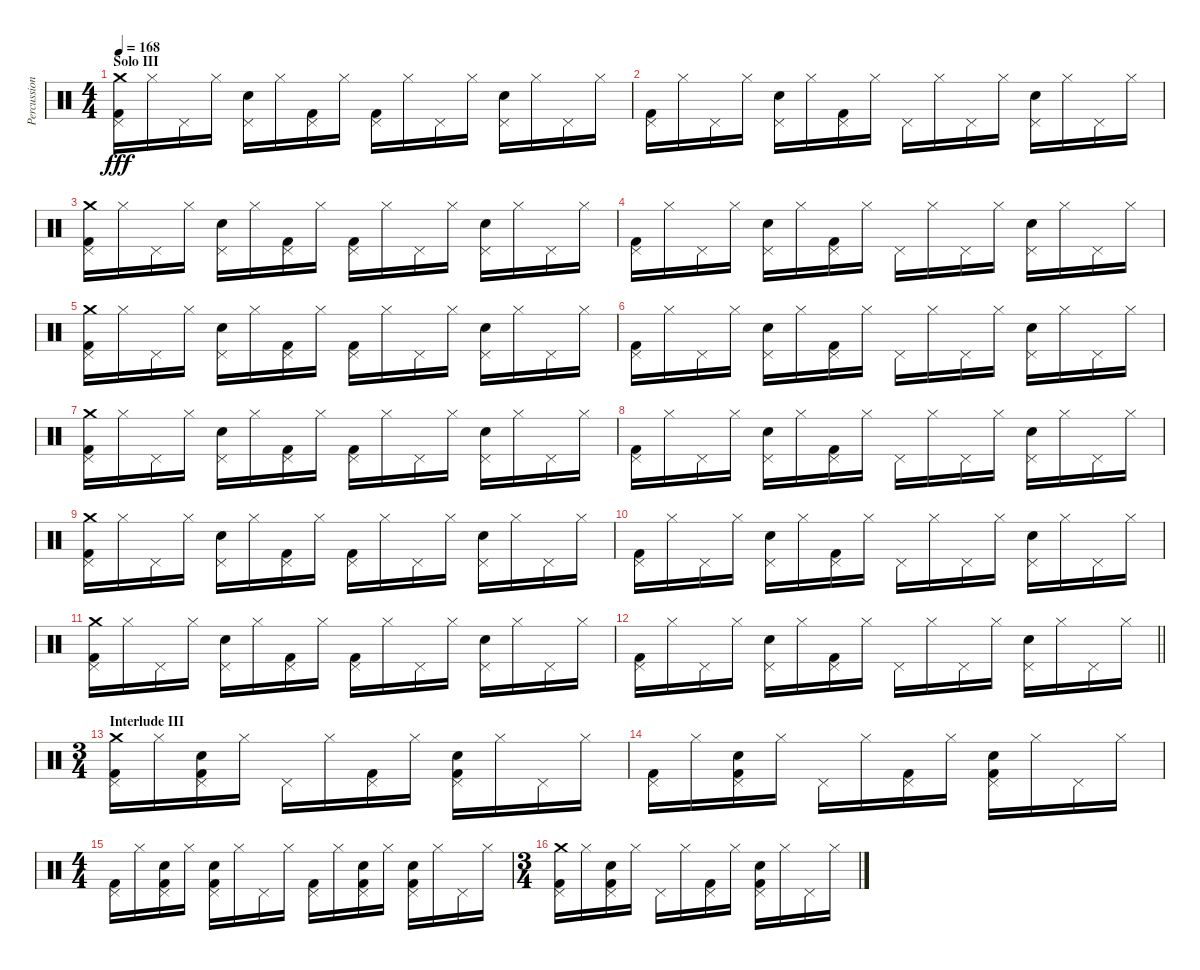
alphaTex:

\track ("Percussion" "Percussion") {instrument percussion}
\staff {score}
\articulation defaults
\ts (4 4)
\section ("" "Solo III")
\tempo 168
\clef neutral
\ks c
("Kick (hit) 2" "Crash medium (hit)" "Pedal Hi-Hat (hit)").16{dy fff} "Hi-Hat (closed)".16 "Pedal Hi-Hat (hit)".16 "Hi-Hat (closed)".16 ("Pedal Hi-Hat (hit)" "Snare (hit) 2").16 "Hi-Hat (closed)".16 ("Kick (hit) 2" "Pedal Hi-Hat (hit)").16 "Hi-Hat (closed)".16 ("Kick (hit) 2" "Pedal Hi-Hat (hit)").16 "Hi-Hat (closed)".16 "Pedal Hi-Hat (hit)".16 "Hi-Hat (closed)".16 ("Pedal Hi-Hat (hit)" "Snare (hit) 2").16 "Hi-Hat (closed)".16 "Pedal Hi-Hat (hit)".16 "Hi-Hat (closed)".16 |
("Kick (hit) 2" "Pedal Hi-Hat (hit)").16 "Hi-Hat (closed)".16 "Pedal Hi-Hat (hit)".16 "Hi-Hat (closed)".16 ("Pedal Hi-Hat (hit)" "Snare (hit) 2").16 "Hi-Hat (closed)".16 ("Kick (hit) 2" "Pedal Hi-Hat (hit)").16 "Hi-Hat (closed)".16 "Pedal Hi-Hat (hit)".16 "Hi-Hat (closed)".16 "Pedal Hi-Hat (hit)".16 "Hi-Hat (closed)".16 ("Pedal Hi-Hat (hit)" "Snare (hit) 2").16 "Hi-Hat (closed)".16 "Pedal Hi-Hat (hit)".16 "Hi-Hat (closed)".16 |
("Kick (hit) 2" "Crash medium (hit)" "Pedal Hi-Hat (hit)").16 "Hi-Hat (closed)".16 "Pedal Hi-Hat (hit)".16 "Hi-Hat (closed)".16 ("Pedal Hi-Hat (hit)" "Snare (hit) 2").16 "Hi-Hat (closed)".16 ("Kick (hit) 2" "Pedal Hi-Hat (hit)").16 "Hi-Hat (closed)".16 ("Kick (hit) 2" "Pedal Hi-Hat (hit)").16 "Hi-Hat (closed)".16 "Pedal Hi-Hat (hit)".16 "Hi-Hat (closed)".16 ("Pedal Hi-Hat (hit)" "Snare (hit) 2").16 "Hi-Hat (closed)".16 "Pedal Hi-Hat (hit)".16 "Hi-Hat (closed)".16 |
("Kick (hit) 2" "Pedal Hi-Hat (hit)").16 "Hi-Hat (closed)".16 "Pedal Hi-Hat (hit)".16 "Hi-Hat (closed)".16 ("Pedal Hi-Hat (hit)" "Snare (hit) 2").16 "Hi-Hat (closed)".16 ("Kick (hit) 2" "Pedal Hi-Hat (hit)").16 "Hi-Hat (closed)".16 "Pedal Hi-Hat (hit)".16 "Hi-Hat (closed)".16 "Pedal Hi-Hat (hit)".16 "Hi-Hat (closed)".16 ("Pedal Hi-Hat (hit)" "Snare (hit) 2").16 "Hi-Hat (closed)".16 "Pedal Hi-Hat (hit)".16 "Hi-Hat (closed)".16 |
("Kick (hit) 2" "Crash medium (hit)" "Pedal Hi-Hat (hit)").16 "Hi-Hat (closed)".16 "Pedal Hi-Hat (hit)".16 "Hi-Hat (closed)".16 ("Pedal Hi-Hat (hit)" "Snare (hit) 2").16 "Hi-Hat (closed)".16 ("Kick (hit) 2" "Pedal Hi-Hat (hit)").16 "Hi-Hat (closed)".16 ("Kick (hit) 2" "Pedal Hi-Hat (hit)").16 "Hi-Hat (closed)".16 "Pedal Hi-Hat (hit)".16 "Hi-Hat (closed)".16 ("Pedal Hi-Hat (hit)" "Snare (hit) 2").16 "Hi-Hat (closed)".16 "Pedal Hi-Hat (hit)".16 "Hi-Hat (closed)".16 |
("Kick (hit) 2" "Pedal Hi-Hat (hit)").16 "Hi-Hat (closed)".16 "Pedal Hi-Hat (hit)".16 "Hi-Hat (closed)".16 ("Pedal Hi-Hat (hit)" "Snare (hit) 2").16 "Hi-Hat (closed)".16 ("Kick (hit) 2" "Pedal Hi-Hat (hit)").16 "Hi-Hat (closed)".16 "Pedal Hi-Hat (hit)".16 "Hi-Hat (closed)".16 "Pedal Hi-Hat (hit)".16 "Hi-Hat (closed)".16 ("Pedal Hi-Hat (hit)" "Snare (hit) 2").16 "Hi-Hat (closed)".16 "Pedal Hi-Hat (hit)".16 "Hi-Hat (closed)".16 |
("Kick (hit) 2" "Crash medium (hit)" "Pedal Hi-Hat (hit)").16 "Hi-Hat (closed)".16 "Pedal Hi-Hat (hit)".16 "Hi-Hat (closed)".16 ("Pedal Hi-Hat (hit)" "Snare (hit) 2").16 "Hi-Hat (closed)".16 ("Kick (hit) 2" "Pedal Hi-Hat (hit)").16 "Hi-Hat (closed)".16 ("Kick (hit) 2" "Pedal Hi-Hat (hit)").16 "Hi-Hat (closed)".16 "Pedal Hi-Hat (hit)".16 "Hi-Hat (closed)".16 ("Pedal Hi-Hat (hit)" "Snare (hit) 2").16 "Hi-Hat (closed)".16 "Pedal Hi-Hat (hit)".16 "Hi-Hat (closed)".16 |
("Kick (hit) 2" "Pedal Hi-Hat (hit)").16 "Hi-Hat (closed)".16 "Pedal Hi-Hat (hit)".16 "Hi-Hat (closed)".16 ("Pedal Hi-Hat (hit)" "Snare (hit) 2").16 "Hi-Hat (closed)".16 ("Kick (hit) 2" "Pedal Hi-Hat (hit)").16 "Hi-Hat (closed)".16 "Pedal Hi-Hat (hit)".16 "Hi-Hat (closed)".16 "Pedal Hi-Hat (hit)".16 "Hi-Hat (closed)".16 ("Pedal Hi-Hat (hit)" "Snare (hit) 2").16 "Hi-Hat (closed)".16 "Pedal Hi-Hat (hit)".16 "Hi-Hat (closed)".16 |
("Kick (hit) 2" "Crash medium (hit)" "Pedal Hi-Hat (hit)").16 "Hi-Hat (closed)".16 "Pedal Hi-Hat (hit)".16 "Hi-Hat (closed)".16 ("Pedal Hi-Hat (hit)" "Snare (hit) 2").16 "Hi-Hat (closed)".16 ("Kick (hit) 2" "Pedal Hi-Hat (hit)").16 "Hi-Hat (closed)".16 ("Kick (hit) 2" "Pedal Hi-Hat (hit)").16 "Hi-Hat (closed)".16 "Pedal Hi-Hat (hit)".16 "Hi-Hat (closed)".16 ("Pedal Hi-Hat (hit)" "Snare (hit) 2").16 "Hi-Hat (closed)".16 "Pedal Hi-Hat (hit)".16 "Hi-Hat (closed)".16 |
("Kick (hit) 2" "Pedal Hi-Hat (hit)").16 "Hi-Hat (closed)".16 "Pedal Hi-Hat (hit)".16 "Hi-Hat (closed)".16 ("Pedal Hi-Hat (hit)" "Snare (hit) 2").16 "Hi-Hat (closed)".16 ("Kick (hit) 2" "Pedal Hi-Hat (hit)").16 "Hi-Hat (closed)".16 "Pedal Hi-Hat (hit)".16 "Hi-Hat (closed)".16 "Pedal Hi-Hat (hit)".16 "Hi-Hat (closed)".16 ("Pedal Hi-Hat (hit)" "Snare (hit) 2").16 "Hi-Hat (closed)".16 "Pedal Hi-Hat (hit)".16 "Hi-Hat (closed)".16 |
("Kick (hit) 2" "Crash medium (hit)" "Pedal Hi-Hat (hit)").16 "Hi-Hat (closed)".16 "Pedal Hi-Hat (hit)".16 "Hi-Hat (closed)".16 ("Pedal Hi-Hat (hit)" "Snare (hit) 2").16 "Hi-Hat (closed)".16 ("Kick (hit) 2" "Pedal Hi-Hat (hit)").16 "Hi-Hat (closed)".16 ("Kick (hit) 2" "Pedal Hi-Hat (hit)").16 "Hi-Hat (closed)".16 "Pedal Hi-Hat (hit)".16 "Hi-Hat (closed)".16 ("Pedal Hi-Hat (hit)" "Snare (hit) 2").16 "Hi-Hat (closed)".16 "Pedal Hi-Hat (hit)".16 "Hi-Hat (closed)".16 |
\barLineRight lightlight
("Kick (hit) 2" "Pedal Hi-Hat (hit)").16 "Hi-Hat (closed)".16 "Pedal Hi-Hat (hit)".16 "Hi-Hat (closed)".16 ("Pedal Hi-Hat (hit)" "Snare (hit) 2").16 "Hi-Hat (closed)".16 ("Kick (hit) 2" "Pedal Hi-Hat (hit)").16 "Hi-Hat (closed)".16 "Pedal Hi-Hat (hit)".16 "Hi-Hat (closed)".16 "Pedal Hi-Hat (hit)".16 "Hi-Hat (closed)".16 ("Pedal Hi-Hat (hit)" "Snare (hit) 2").16 "Hi-Hat (closed)".16 "Pedal Hi-Hat (hit)".16 "Hi-Hat (closed)".16 |
\ts (3 4)
\section ("" "Interlude III")
("Kick (hit) 2" "Crash medium (hit)" "Pedal Hi-Hat (hit)").16 "Hi-Hat (closed)".16 ("Kick (hit) 2" "Pedal Hi-Hat (hit)" "Snare (hit) 2").16 "Hi-Hat (closed)".16 "Pedal Hi-Hat (hit)".16 "Hi-Hat (closed)".16 ("Kick (hit) 2" "Pedal Hi-Hat (hit)").16 "Hi-Hat (closed)".16 ("Kick (hit) 2" "Pedal Hi-Hat (hit)" "Snare (hit) 2").16 "Hi-Hat (closed)".16 "Pedal Hi-Hat (hit)".16 "Hi-Hat (closed)".16 |
("Kick (hit) 2" "Pedal Hi-Hat (hit)").16 "Hi-Hat (closed)".16 ("Kick (hit) 2" "Pedal Hi-Hat (hit)" "Snare (hit) 2").16 "Hi-Hat (closed)".16 "Pedal Hi-Hat (hit)".16 "Hi-Hat (closed)".16 ("Kick (hit) 2" "Pedal Hi-Hat (hit)").16 "Hi-Hat (closed)".16 ("Kick (hit) 2" "Pedal Hi-Hat (hit)" "Snare (hit) 2").16 "Hi-Hat (closed)".16 "Pedal Hi-Hat (hit)".16 "Hi-Hat (closed)".16 |
\ts (4 4)
("Kick (hit) 2" "Pedal Hi-Hat (hit)").16 "Hi-Hat (closed)".16 ("Kick (hit) 2" "Pedal Hi-Hat (hit)" "Snare (hit) 2").16 "Hi-Hat (closed)".16 ("Kick (hit) 2" "Pedal Hi-Hat (hit)" "Snare (hit) 2").16 "Hi-Hat (closed)".16 "Pedal Hi-Hat (hit)".16 "Hi-Hat (closed)".16 ("Kick (hit) 2" "Pedal Hi-Hat (hit)").16 "Hi-Hat (closed)".16 ("Kick (hit) 2" "Pedal Hi-Hat (hit)" "Snare (hit) 2").16 "Hi-Hat (closed)".16 ("Kick (hit) 2" "Pedal Hi-Hat (hit)" "Snare (hit) 2").16 "Hi-Hat (closed)".16 "Pedal Hi-Hat (hit)".16 "Hi-Hat (closed)".16 |
\ts (3 4)
("Kick (hit) 2" "Crash medium (hit)" "Pedal Hi-Hat (hit)").16 "Hi-Hat (closed)".16 ("Kick (hit) 2" "Pedal Hi-Hat (hit)" "Snare (hit) 2").16 "Hi-Hat (closed)".16 "Pedal Hi-Hat (hit)".16 "Hi-Hat (closed)".16 ("Kick (hit) 2" "Pedal Hi-Hat (hit)").16 "Hi-Hat (closed)".16 ("Kick (hit) 2" "Pedal Hi-Hat (hit)" "Snare (hit) 2").16 "Hi-Hat (closed)".16 "Pedal Hi-Hat (hit)".16 "Hi-Hat (closed)".16
